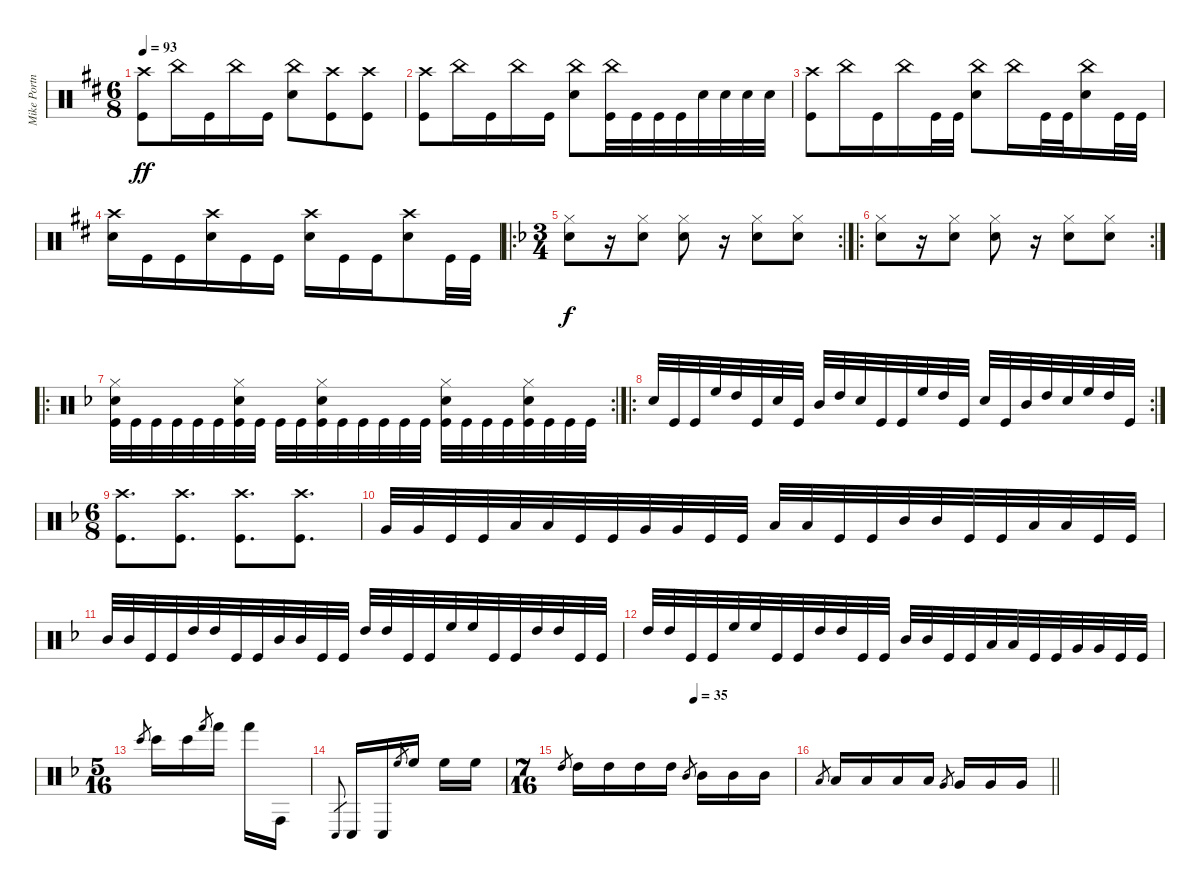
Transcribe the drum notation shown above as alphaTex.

\track ("Mike Portnoy - Drums" "Mike Portn") {instrument percussion}
\staff {score}
\articulation defaults
\ts (6 8)
\tempo 93
\clef neutral
\ks bminor
("Crash high (hit)" "Kick (hit)").8{dy ff} "China (hit)".16 "Kick (hit)".16 "China (hit)".16 "Kick (hit)".16 ("China (hit)" "Snare (hit) 2").8 ("Crash high (hit)" "Kick (hit)").8 ("Crash high (hit)" "Kick (hit)").8 |
("Crash high (hit)" "Kick (hit)").8 "China (hit)".16 "Kick (hit)".16 "China (hit)".16 "Kick (hit)".16 ("China (hit)" "Snare (hit) 2").8 ("China (hit)" "Kick (hit)").32 "Kick (hit)".32 "Kick (hit)".32 "Kick (hit)".32 "Snare (hit) 2".32 "Snare (hit) 2".32 "Snare (hit) 2".32 "Snare (hit) 2".32 |
("Crash high (hit)" "Kick (hit)").8 "China (hit)".16 "Kick (hit)".16 "China (hit)".16 "Kick (hit)".32 "Kick (hit)".32 ("China (hit)" "Snare (hit) 2").8 "China (hit)".16 "Kick (hit)".32 "Kick (hit)".32 ("China (hit)" "Snare (hit) 2").16 "Kick (hit)".32 "Kick (hit)".32 |
("Crash high (hit)" "Snare (hit) 2").16 "Kick (hit)".16 "Kick (hit)".16 ("Crash high (hit)" "Snare (hit) 2").16 "Kick (hit)".16 "Kick (hit)".16 ("Crash high (hit)" "Snare (hit) 2").16 "Kick (hit)".16 "Kick (hit)".16 ("Crash high (hit)" "Snare (hit) 2").8 "Kick (hit)".32 "Kick (hit)".32 |
\ro
\rc 2
\ts (3 4)
\ks dminor
("Hi-Hat (closed)" "Snare (hit) 2").8{dy f} r.16 ("Hi-Hat (closed)" "Snare (hit) 2").8 ("Hi-Hat (closed)" "Snare (hit) 2").8 r.16 ("Hi-Hat (closed)" "Snare (hit) 2").8 ("Hi-Hat (closed)" "Snare (hit) 2").8 |
\ro
\rc 2
("Hi-Hat (closed)" "Snare (hit) 2").8 r.16 ("Hi-Hat (closed)" "Snare (hit) 2").8 ("Hi-Hat (closed)" "Snare (hit) 2").8 r.16 ("Hi-Hat (closed)" "Snare (hit) 2").8 ("Hi-Hat (closed)" "Snare (hit) 2").8 |
\ro
\rc 2
("Hi-Hat (closed)" "Snare (hit) 2" "Kick (hit)").32 "Kick (hit)".32 "Kick (hit)".32 "Kick (hit)".32 "Kick (hit)".32 "Kick (hit)".32 ("Hi-Hat (closed)" "Snare (hit) 2" "Kick (hit)").32 "Kick (hit)".32 "Kick (hit)".32 "Kick (hit)".32 ("Hi-Hat (closed)" "Snare (hit) 2" "Kick (hit)").32 "Kick (hit)".32 "Kick (hit)".32 "Kick (hit)".32 "Kick (hit)".32 "Kick (hit)".32 ("Hi-Hat (closed)" "Snare (hit) 2" "Kick (hit)").32 "Kick (hit)".32 "Kick (hit)".32 "Kick (hit)".32 ("Hi-Hat (closed)" "Snare (hit) 2" "Kick (hit)").32 "Kick (hit)".32 "Kick (hit)".32 "Kick (hit)".32 |
\ro
\rc 2 "Snare (hit) 2".32 "Kick (hit)".32 "Kick (hit)".32 "High Floor Tom (hit)".32 "High Tom (hit)".32 "Kick (hit)".32 "Snare (hit) 2".32 "Kick (hit)".32 "Mid Tom (hit)".32 "High Tom (hit)".32 "Snare (hit) 2".32 "Kick (hit)".32 "Kick (hit)".32 "High Floor Tom (hit)".32 "High Tom (hit)".32 "Kick (hit)".32 "Snare (hit) 2".32 "Kick (hit)".32 "Mid Tom (hit)".32 "High Tom (hit)".32 "Snare (hit) 2".32 "High Floor Tom (hit)".32 "High Tom (hit)".32 "Kick (hit)".32
|
\ts (6 8)
("Crash high (hit)" "Kick (hit)").8{d} ("Crash high (hit)" "Kick (hit)").8{d} ("Crash high (hit)" "Kick (hit)").8{d} ("Crash high (hit)" "Kick (hit)").8{d} |
"Very Low Tom (hit)".32 "Very Low Tom (hit)".32 "Kick (hit)".32 "Kick (hit)".32 "Low Tom (hit)".32 "Low Tom (hit)".32 "Kick (hit)".32 "Kick (hit)".32 "Very Low Tom (hit)".32 "Very Low Tom (hit)".32 "Kick (hit)".32 "Kick (hit)".32 "Low Tom (hit)".32 "Low Tom (hit)".32 "Kick (hit)".32 "Kick (hit)".32 "Mid Tom (hit)".32 "Mid Tom (hit)".32 "Kick (hit)".32 "Kick (hit)".32 "Low Tom (hit)".32 "Low Tom (hit)".32 "Kick (hit)".32 "Kick (hit)".32 |
"Mid Tom (hit)".32 "Mid Tom (hit)".32 "Kick (hit)".32 "Kick (hit)".32 "High Tom (hit)".32 "High Tom (hit)".32 "Kick (hit)".32 "Kick (hit)".32 "Mid Tom (hit)".32 "Mid Tom (hit)".32 "Kick (hit)".32 "Kick (hit)".32 "High Tom (hit)".32 "High Tom (hit)".32 "Kick (hit)".32 "Kick (hit)".32 "High Floor Tom (hit)".32 "High Floor Tom (hit)".32 "Kick (hit)".32 "Kick (hit)".32 "High Tom (hit)".32 "High Tom (hit)".32 "Kick (hit)".32 "Kick (hit)".32 |
"High Tom (hit)".32 "High Tom (hit)".32 "Kick (hit)".32 "Kick (hit)".32 "High Floor Tom (hit)".32 "High Floor Tom (hit)".32 "Kick (hit)".32 "Kick (hit)".32 "High Tom (hit)".32 "High Tom (hit)".32 "Kick (hit)".32 "Kick (hit)".32 "Mid Tom (hit)".32 "Mid Tom (hit)".32 "Kick (hit)".32 "Kick (hit)".32 "Low Tom (hit)".32 "Low Tom (hit)".32 "Kick (hit)".32 "Kick (hit)".32 "Very Low Tom (hit)".32 "Very Low Tom (hit)".32 "Kick (hit)".32 "Kick (hit)".32 |
\ts (5 16)
"Bongo High (hit)".8{gr} "Bongo High (hit)".16 "Bongo High (hit)".16 "Hand (hit)".8{gr} "Hand (hit)".16 "Hand (hit)".16 "Conga high (hit)".16 |
"Conga low (hit)".8{gr} "Conga low (hit)".16 "Conga low (hit)".16 "High Floor Tom (hit)".8{gr} "High Floor Tom (hit)".16 "High Floor Tom (hit)".16 "High Floor Tom (hit)".16 |
\ts (7 16)
\tempo (35 0.5714285714285714)
"High Tom (hit)".8{gr} "High Tom (hit)".16 "High Tom (hit)".16 "High Tom (hit)".16 "High Tom (hit)".16 "Mid Tom (hit)".8{gr} "Mid Tom (hit)".16 "Mid Tom (hit)".16 "Mid Tom (hit)".16 |
\barLineRight lightlight "Low Tom (hit)".8{gr} "Low Tom (hit)".16 "Low Tom (hit)".16 "Low Tom (hit)".16 "Low Tom (hit)".16 "Very Low Tom (hit)".8{gr} "Very Low Tom (hit)".16 "Very Low Tom (hit)".16 "Very Low Tom (hit)".16
